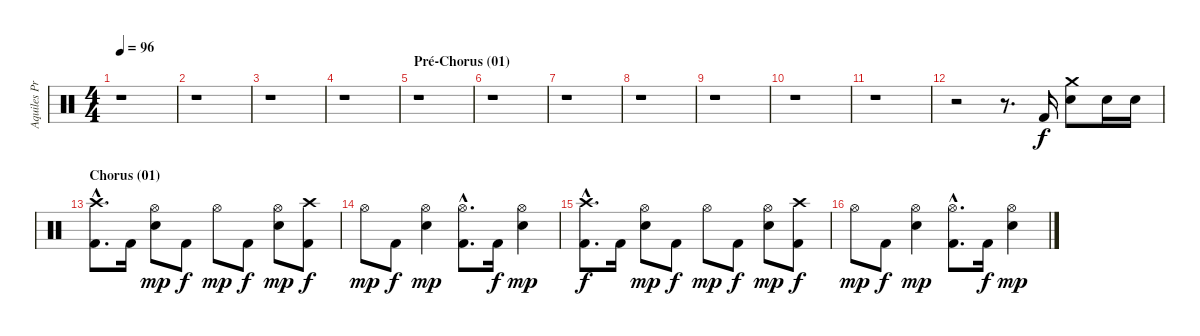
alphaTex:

\track ("Aquiles Priester" "Aquiles Pr") {instrument percussion}
\staff {score}
\articulation defaults
\ts (4 4)
\tempo 96
\clef neutral
\ks c
r.1{dy f} |
r.1 |
r.1 |
r.1 |
\section ("" "Pré-Chorus (01)")
r.1 |
r.1 |
r.1 |
r.1 |
r.1 |
r.1 |
r.1 |
r.2 r.8{d} "Kick (hit) 2".16 ("Crash medium (hit)" "Snare (hit) 2").8 "Snare (hit) 2".16 "Snare (hit) 2".16 |
\section ("" "Chorus (01)")
("Crash high (hit)"{hac} "Kick (hit) 2"{hac}).8{d} "Kick (hit) 2".16 ("Hi-Hat (open)" "Snare (hit) 2").8{dy mp} "Kick (hit) 2".8{dy f} "Hi-Hat (open)".8{dy mp} "Kick (hit) 2".8{dy f} ("Hi-Hat (open)" "Snare (hit) 2").8{dy mp} ("Crash high (hit)" "Kick (hit) 2").8{dy f} |
"Hi-Hat (open)".8{dy mp} "Kick (hit) 2".8{dy f} ("Hi-Hat (open)" "Snare (hit) 2").4{dy mp} ("Hi-Hat (open)"{hac} "Kick (hit) 2"{hac}).8{d} "Kick (hit) 2".16{dy f} ("Hi-Hat (open)" "Snare (hit) 2").4{dy mp} |
("Crash high (hit)"{hac} "Kick (hit) 2"{hac}).8{d dy f} "Kick (hit) 2".16 ("Hi-Hat (open)" "Snare (hit) 2").8{dy mp} "Kick (hit) 2".8{dy f} "Hi-Hat (open)".8{dy mp} "Kick (hit) 2".8{dy f} ("Hi-Hat (open)" "Snare (hit) 2").8{dy mp} ("Crash high (hit)" "Kick (hit) 2").8{dy f} |
"Hi-Hat (open)".8{dy mp} "Kick (hit) 2".8{dy f} ("Hi-Hat (open)" "Snare (hit) 2").4{dy mp} ("Hi-Hat (open)"{hac} "Kick (hit) 2"{hac}).8{d} "Kick (hit) 2".16{dy f} ("Hi-Hat (open)" "Snare (hit) 2").4{dy mp}
